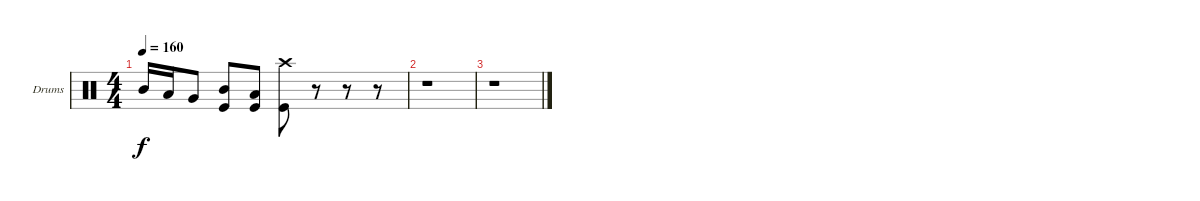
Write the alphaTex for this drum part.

\bracketExtendMode groupsimilarinstruments
\firstSystemTrackNameOrientation horizontal
\otherSystemsTrackNameOrientation horizontal
\track ("Drumkit" "Drums") {instrument percussion}
\staff {score}
\articulation defaults
\ts (4 4)
\tempo 160
\clef neutral
\ks c "Mid Tom (hit)".16{dy f} "Low Tom (hit)".16 "Very Low Tom (hit)".8
("Mid Tom (hit)" "Kick (hit)").8 ("Low Tom (hit)" "Kick (hit)").8 ("Crash high (hit)" "Kick (hit)").8 r.8 r.8 r.8 |
r.1 |
r.1
